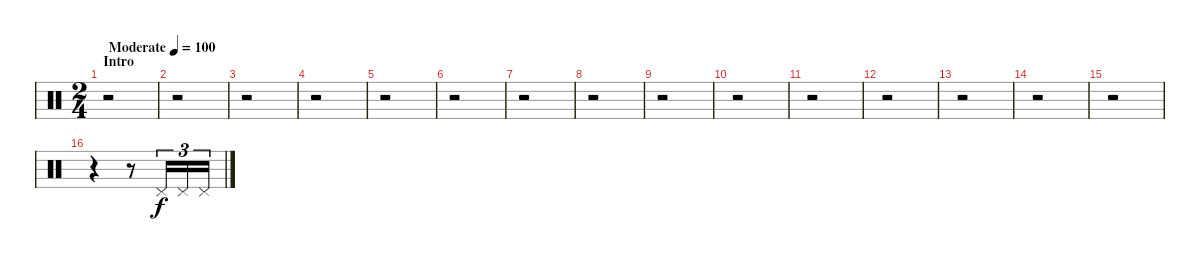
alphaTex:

\track "" {instrument percussion}
\staff {score}
\articulation defaults
\ts (2 4)
\section ("" "Intro")
\tempo (100 "Moderate")
\clef neutral
\ks c
r.2{dy f} |
r.2 |
r.2 |
r.2 |
r.2 |
r.2 |
r.2 |
r.2 |
r.2 |
r.2 |
r.2 |
r.2 |
r.2 |
r.2 |
r.2 |
r.4 r.8 "Pedal Hi-Hat (hit)".16{tu (3 2)} "Pedal Hi-Hat (hit)".16{tu (3 2)} "Pedal Hi-Hat (hit)".16{tu (3 2)}
